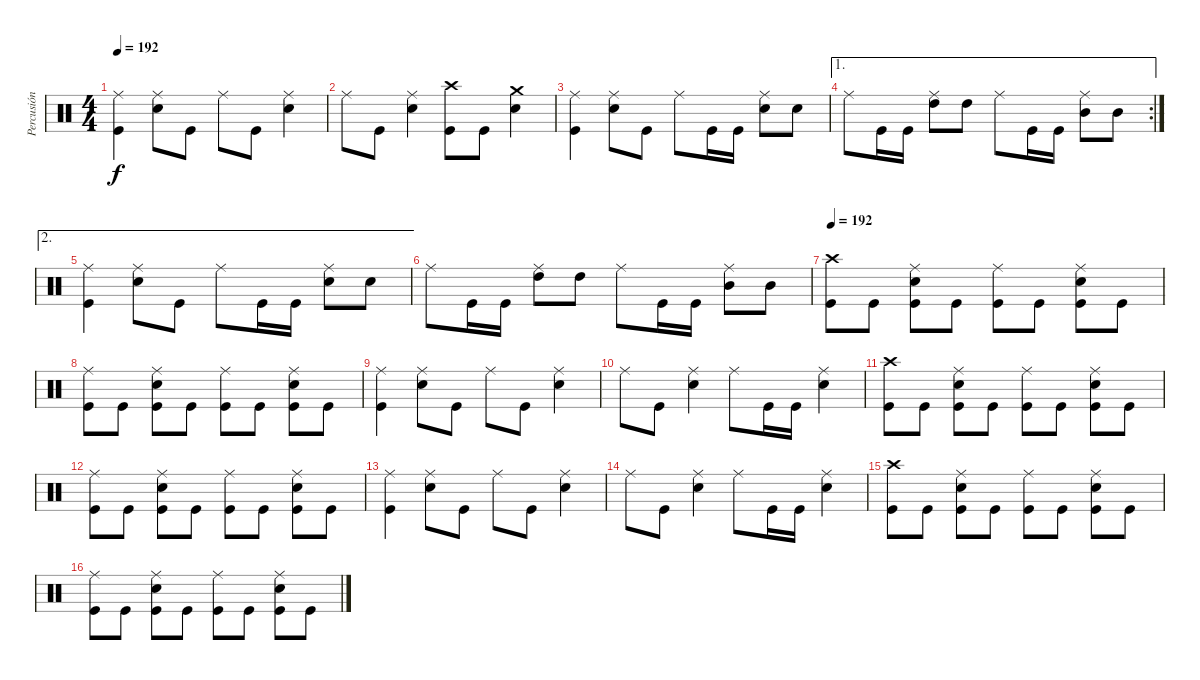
\track ("Percusión" "Percusión") {instrument percussion}
\staff {score}
\articulation defaults
\ts (4 4)
\tempo 192
\clef neutral
\ks c
("Ride (middle)" "Kick (hit)").4{dy f} ("Ride (middle)" "Electric Snare (hit)").8 "Kick (hit)".8 "Ride (middle)".8 "Kick (hit)".8 ("Ride (middle)" "Electric Snare (hit)").4 |
"Ride (middle)".8 "Kick (hit)".8 ("Ride (middle)" "Electric Snare (hit)").4 ("Crash high (hit)" "Kick (hit)").8 "Kick (hit)".8 ("Crash medium (hit)" "Electric Snare (hit)").4 |
("Ride (middle)" "Kick (hit)").4 ("Ride (middle)" "Electric Snare (hit)").8 "Kick (hit)".8 "Ride (middle)".8 "Kick (hit)".16 "Kick (hit)".16 ("Ride (middle)" "Electric Snare (hit)").8 "Electric Snare (hit)".8 |
\ae 1
\rc 2 "Ride (middle)".8 "Kick (hit)".16 "Kick (hit)".16
("Ride (middle)" "High Tom (hit)").8 "High Tom (hit)".8 "Ride (middle)".8 "Kick (hit)".16 "Kick (hit)".16 ("Ride (middle)" "Mid Tom (hit)").8 "Mid Tom (hit)".8 |
\ae 2
("Ride (middle)" "Kick (hit)").4 ("Ride (middle)" "Electric Snare (hit)").8 "Kick (hit)".8 "Ride (middle)".8 "Kick (hit)".16 "Kick (hit)".16 ("Ride (middle)" "Electric Snare (hit)").8 "Electric Snare (hit)".8 |
"Ride (middle)".8 "Kick (hit)".16 "Kick (hit)".16 ("Ride (middle)" "High Tom (hit)").8 "High Tom (hit)".8 "Ride (middle)".8 "Kick (hit)".16 "Kick (hit)".16 ("Ride (middle)" "Mid Tom (hit)").8 "Mid Tom (hit)".8 |
\tempo 192
("Crash high (hit)" "Kick (hit)").8 "Kick (hit)".8 ("Ride (middle)" "Electric Snare (hit)" "Kick (hit)").8 "Kick (hit)".8 ("Ride (middle)" "Kick (hit)").8 "Kick (hit)".8 ("Ride (middle)" "Electric Snare (hit)" "Kick (hit)").8 "Kick (hit)".8 |
("Ride (middle)" "Kick (hit)").8 "Kick (hit)".8 ("Ride (middle)" "Electric Snare (hit)" "Kick (hit)").8 "Kick (hit)".8 ("Ride (middle)" "Kick (hit)").8 "Kick (hit)".8 ("Ride (middle)" "Electric Snare (hit)" "Kick (hit)").8 "Kick (hit)".8 |
("Ride (middle)" "Kick (hit)").4 ("Ride (middle)" "Electric Snare (hit)").8 "Kick (hit)".8 "Ride (middle)".8 "Kick (hit)".8 ("Ride (middle)" "Electric Snare (hit)").4 |
"Ride (middle)".8 "Kick (hit)".8 ("Ride (middle)" "Electric Snare (hit)").4 "Ride (middle)".8 "Kick (hit)".16 "Kick (hit)".16 ("Ride (middle)" "Electric Snare (hit)").4 |
("Crash high (hit)" "Kick (hit)").8 "Kick (hit)".8 ("Ride (middle)" "Electric Snare (hit)" "Kick (hit)").8 "Kick (hit)".8 ("Ride (middle)" "Kick (hit)").8 "Kick (hit)".8 ("Ride (middle)" "Electric Snare (hit)" "Kick (hit)").8 "Kick (hit)".8 |
("Ride (middle)" "Kick (hit)").8 "Kick (hit)".8 ("Ride (middle)" "Electric Snare (hit)" "Kick (hit)").8 "Kick (hit)".8 ("Ride (middle)" "Kick (hit)").8 "Kick (hit)".8 ("Ride (middle)" "Electric Snare (hit)" "Kick (hit)").8 "Kick (hit)".8 |
("Ride (middle)" "Kick (hit)").4 ("Ride (middle)" "Electric Snare (hit)").8 "Kick (hit)".8 "Ride (middle)".8 "Kick (hit)".8 ("Ride (middle)" "Electric Snare (hit)").4 |
"Ride (middle)".8 "Kick (hit)".8 ("Ride (middle)" "Electric Snare (hit)").4 "Ride (middle)".8 "Kick (hit)".16 "Kick (hit)".16 ("Ride (middle)" "Electric Snare (hit)").4 |
("Crash high (hit)" "Kick (hit)").8 "Kick (hit)".8 ("Ride (middle)" "Electric Snare (hit)" "Kick (hit)").8 "Kick (hit)".8 ("Ride (middle)" "Kick (hit)").8 "Kick (hit)".8 ("Ride (middle)" "Electric Snare (hit)" "Kick (hit)").8 "Kick (hit)".8 |
("Ride (middle)" "Kick (hit)").8 "Kick (hit)".8 ("Ride (middle)" "Electric Snare (hit)" "Kick (hit)").8 "Kick (hit)".8 ("Ride (middle)" "Kick (hit)").8 "Kick (hit)".8 ("Ride (middle)" "Electric Snare (hit)" "Kick (hit)").8 "Kick (hit)".8
